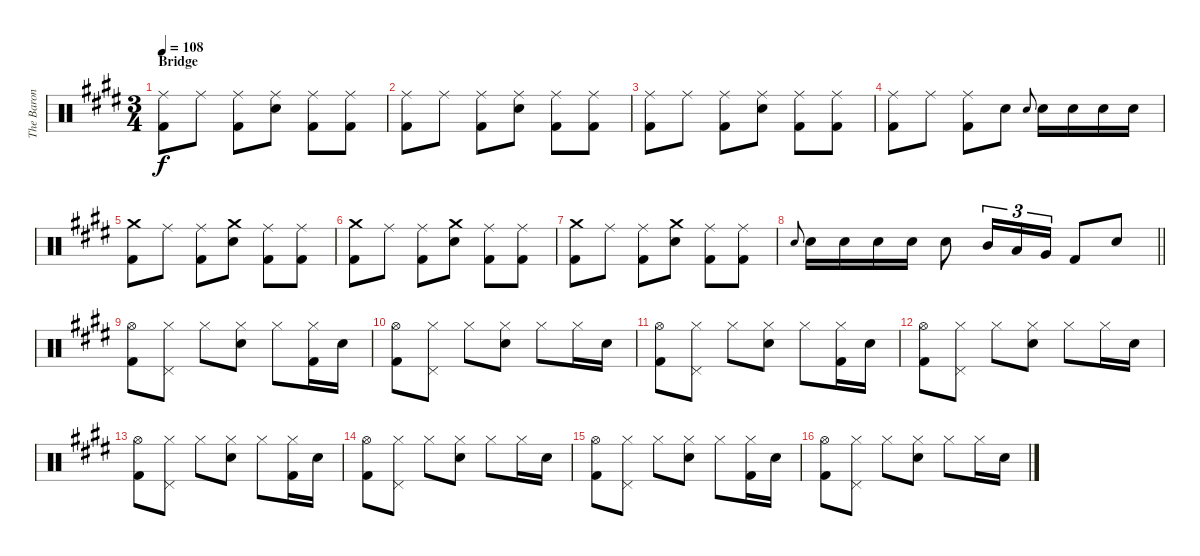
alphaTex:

\track ("The Baron Von Tito" "The Baron ") {instrument percussion}
\staff {score}
\articulation defaults
\ts (3 4)
\section ("" "Bridge")
\tempo 108
\clef neutral
\ks e
("Ride (middle)" "Kick (hit) 2").8{dy f} "Ride (middle)".8 ("Ride (middle)" "Kick (hit) 2").8 ("Ride (middle)" "Electric Snare (hit)").8 ("Ride (middle)" "Kick (hit) 2").8 ("Ride (middle)" "Kick (hit) 2").8 |
("Ride (middle)" "Kick (hit) 2").8 "Ride (middle)".8 ("Ride (middle)" "Kick (hit) 2").8 ("Ride (middle)" "Electric Snare (hit)").8 ("Ride (middle)" "Kick (hit) 2").8 ("Ride (middle)" "Kick (hit) 2").8 |
("Ride (middle)" "Kick (hit) 2").8 "Ride (middle)".8 ("Ride (middle)" "Kick (hit) 2").8 ("Ride (middle)" "Electric Snare (hit)").8 ("Ride (middle)" "Kick (hit) 2").8 ("Ride (middle)" "Kick (hit) 2").8 |
("Ride (middle)" "Kick (hit) 2").8 "Ride (middle)".8 ("Ride (middle)" "Kick (hit) 2").8 "Electric Snare (hit)".8 "Electric Snare (hit)".8{gr onbeat} "Electric Snare (hit)".16 "Electric Snare (hit)".16 "Electric Snare (hit)".16 "Electric Snare (hit)".16 |
("Crash medium (hit)" "Kick (hit) 2").8 "Ride (middle)".8 ("Ride (middle)" "Kick (hit) 2").8 ("Crash medium (hit)" "Electric Snare (hit)").8 ("Ride (middle)" "Kick (hit) 2").8 ("Ride (middle)" "Kick (hit) 2").8 |
("Crash medium (hit)" "Kick (hit) 2").8 "Ride (middle)".8 ("Ride (middle)" "Kick (hit) 2").8 ("Crash medium (hit)" "Electric Snare (hit)").8 ("Ride (middle)" "Kick (hit) 2").8 ("Ride (middle)" "Kick (hit) 2").8 |
("Crash medium (hit)" "Kick (hit) 2").8 "Ride (middle)".8 ("Ride (middle)" "Kick (hit) 2").8 ("Crash medium (hit)" "Electric Snare (hit)").8 ("Ride (middle)" "Kick (hit) 2").8 ("Ride (middle)" "Kick (hit) 2").8 |
\barLineRight lightlight "Electric Snare (hit)".8{gr onbeat} "Electric Snare (hit)".16 "Electric Snare (hit)".16 "Electric Snare (hit)".16 "Electric Snare (hit)".16 "Electric Snare (hit)".8 "Mid Tom (hit)".16{tu (3 2)} "Low Tom (hit)".16{tu (3 2)} "Very Low Tom (hit)".16{tu (3 2)} "Kick (hit) 2".8 "Electric Snare (hit)".8
|
("Hi-Hat (open)" "Kick (hit) 2").8 ("Hi-Hat (closed)" "Pedal Hi-Hat (hit)").8 "Hi-Hat (closed)".8 ("Hi-Hat (closed)" "Electric Snare (hit)").8 "Hi-Hat (closed)".8 ("Hi-Hat (closed)" "Kick (hit) 2").16 "Electric Snare (hit)".16 |
("Hi-Hat (open)" "Kick (hit) 2").8 ("Hi-Hat (closed)" "Pedal Hi-Hat (hit)").8 "Hi-Hat (closed)".8 ("Hi-Hat (closed)" "Electric Snare (hit)").8 "Hi-Hat (closed)".8 "Hi-Hat (closed)".16 "Electric Snare (hit)".16 |
("Hi-Hat (open)" "Kick (hit) 2").8 ("Hi-Hat (closed)" "Pedal Hi-Hat (hit)").8 "Hi-Hat (closed)".8 ("Hi-Hat (closed)" "Electric Snare (hit)").8 "Hi-Hat (closed)".8 ("Hi-Hat (closed)" "Kick (hit) 2").16 "Electric Snare (hit)".16 |
("Hi-Hat (open)" "Kick (hit) 2").8 ("Hi-Hat (closed)" "Pedal Hi-Hat (hit)").8 "Hi-Hat (closed)".8 ("Hi-Hat (closed)" "Electric Snare (hit)").8 "Hi-Hat (closed)".8 "Hi-Hat (closed)".16 "Electric Snare (hit)".16 |
("Hi-Hat (open)" "Kick (hit) 2").8 ("Hi-Hat (closed)" "Pedal Hi-Hat (hit)").8 "Hi-Hat (closed)".8 ("Hi-Hat (closed)" "Electric Snare (hit)").8 "Hi-Hat (closed)".8 ("Hi-Hat (closed)" "Kick (hit) 2").16 "Electric Snare (hit)".16 |
("Hi-Hat (open)" "Kick (hit) 2").8 ("Hi-Hat (closed)" "Pedal Hi-Hat (hit)").8 "Hi-Hat (closed)".8 ("Hi-Hat (closed)" "Electric Snare (hit)").8 "Hi-Hat (closed)".8 "Hi-Hat (closed)".16 "Electric Snare (hit)".16 |
("Hi-Hat (open)" "Kick (hit) 2").8 ("Hi-Hat (closed)" "Pedal Hi-Hat (hit)").8 "Hi-Hat (closed)".8 ("Hi-Hat (closed)" "Electric Snare (hit)").8 "Hi-Hat (closed)".8 ("Hi-Hat (closed)" "Kick (hit) 2").16 "Electric Snare (hit)".16 |
("Hi-Hat (open)" "Kick (hit) 2").8 ("Hi-Hat (closed)" "Pedal Hi-Hat (hit)").8 "Hi-Hat (closed)".8 ("Hi-Hat (closed)" "Electric Snare (hit)").8 "Hi-Hat (closed)".8 "Hi-Hat (closed)".16 "Electric Snare (hit)".16
